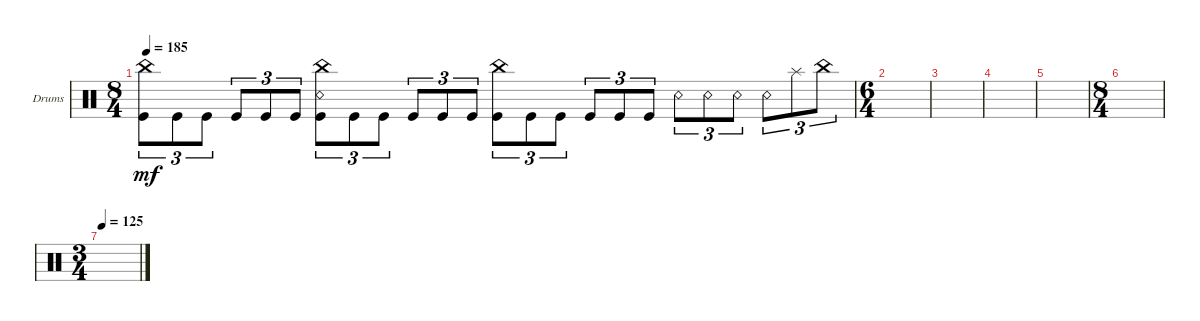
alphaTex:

\defaultSystemsLayout 4
\bracketExtendMode groupsimilarinstruments
\firstSystemTrackNameOrientation horizontal
\otherSystemsTrackNameOrientation horizontal
\track ("Drumkit" "Drums") {instrument percussion}
\staff {score}
\articulation defaults
\ts (8 4)
\tempo 185
\clef neutral
\ks c
("China (hit)" "Kick (hit)").8{tu (3 2) dy mf} "Kick (hit)".8{tu (3 2)} "Kick (hit)".8{tu (3 2)} "Kick (hit)".8{tu (3 2)} "Kick (hit)".8{tu (3 2)} "Kick (hit)".8{tu (3 2)} ("Kick (hit)" "Snare (rim shot)" "China (hit)").8{tu (3 2)} "Kick (hit)".8{tu (3 2)} "Kick (hit)".8{tu (3 2)} "Kick (hit)".8{tu (3 2)} "Kick (hit)".8{tu (3 2)} "Kick (hit)".8{tu (3 2)} ("Kick (hit)" "China (hit)").8{tu (3 2)} "Kick (hit)".8{tu (3 2)} "Kick (hit)".8{tu (3 2)} "Kick (hit)".8{tu (3 2)} "Kick (hit)".8{tu (3 2)} "Kick (hit)".8{tu (3 2)} "Snare (rim shot)".8{tu (3 2)} "Snare (rim shot)".8{tu (3 2)} "Snare (rim shot)".8{tu (3 2)} "Snare (rim shot)".8{tu (3 2)} "Splash (hit)".8{tu (3 2)} "China (hit)".8{tu (3 2)} |
\ts (6 4)
|
|
|
|
\ts (8 4)
|
\ts (3 4)
\tempo 125
